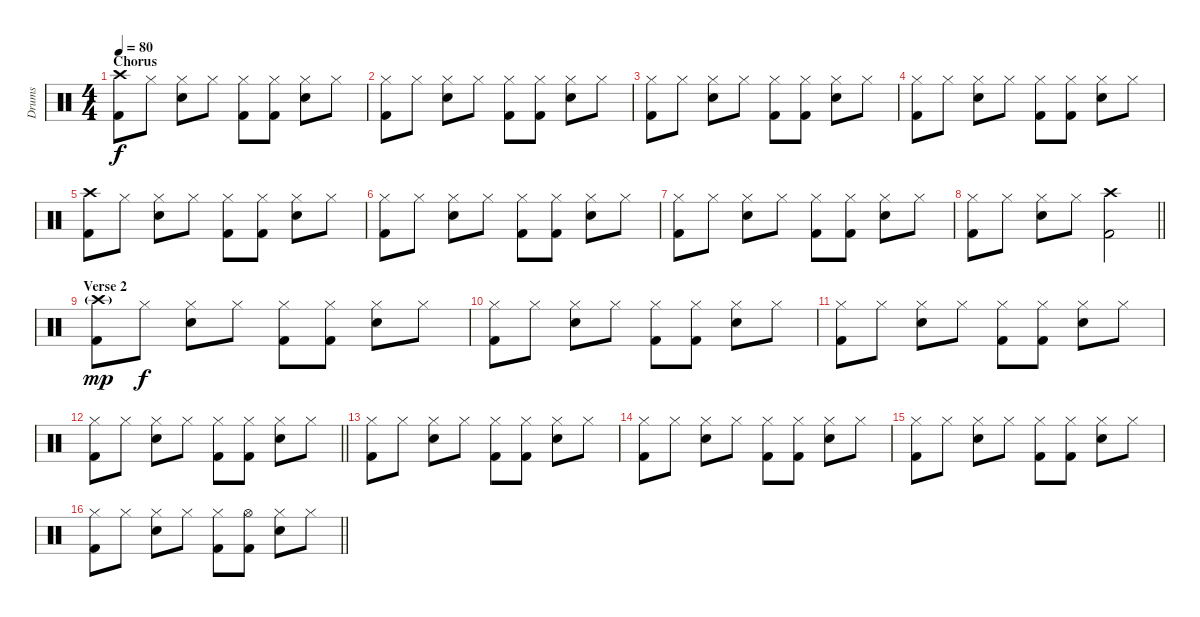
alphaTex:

\track ("Drums" "Drums") {instrument percussion}
\staff {score}
\articulation defaults
\ts (4 4)
\section ("" "Chorus")
\tempo 80
\clef neutral
\ks c
("Crash high (hit)" "Kick (hit) 2").8{dy f} "Hi-Hat (closed)".8 ("Hi-Hat (closed)" "Snare (hit) 2").8 "Hi-Hat (closed)".8 ("Hi-Hat (closed)" "Kick (hit) 2").8 ("Hi-Hat (closed)" "Kick (hit) 2").8 ("Hi-Hat (closed)" "Snare (hit) 2").8 "Hi-Hat (closed)".8 |
("Hi-Hat (closed)" "Kick (hit) 2").8 "Hi-Hat (closed)".8 ("Hi-Hat (closed)" "Snare (hit) 2").8 "Hi-Hat (closed)".8 ("Hi-Hat (closed)" "Kick (hit) 2").8 ("Hi-Hat (closed)" "Kick (hit) 2").8 ("Hi-Hat (closed)" "Snare (hit) 2").8 "Hi-Hat (closed)".8 |
("Hi-Hat (closed)" "Kick (hit) 2").8 "Hi-Hat (closed)".8 ("Hi-Hat (closed)" "Snare (hit) 2").8 "Hi-Hat (closed)".8 ("Hi-Hat (closed)" "Kick (hit) 2").8 ("Hi-Hat (closed)" "Kick (hit) 2").8 ("Hi-Hat (closed)" "Snare (hit) 2").8 "Hi-Hat (closed)".8 |
("Hi-Hat (closed)" "Kick (hit) 2").8 "Hi-Hat (closed)".8 ("Hi-Hat (closed)" "Snare (hit) 2").8 "Hi-Hat (closed)".8 ("Hi-Hat (closed)" "Kick (hit) 2").8 ("Hi-Hat (closed)" "Kick (hit) 2").8 ("Hi-Hat (closed)" "Snare (hit) 2").8 "Hi-Hat (closed)".8 |
("Crash high (hit)" "Kick (hit) 2").8 "Hi-Hat (closed)".8 ("Hi-Hat (closed)" "Snare (hit) 2").8 "Hi-Hat (closed)".8 ("Hi-Hat (closed)" "Kick (hit) 2").8 ("Hi-Hat (closed)" "Kick (hit) 2").8 ("Hi-Hat (closed)" "Snare (hit) 2").8 "Hi-Hat (closed)".8 |
("Hi-Hat (closed)" "Kick (hit) 2").8 "Hi-Hat (closed)".8 ("Hi-Hat (closed)" "Snare (hit) 2").8 "Hi-Hat (closed)".8 ("Hi-Hat (closed)" "Kick (hit) 2").8 ("Hi-Hat (closed)" "Kick (hit) 2").8 ("Hi-Hat (closed)" "Snare (hit) 2").8 "Hi-Hat (closed)".8 |
("Hi-Hat (closed)" "Kick (hit) 2").8 "Hi-Hat (closed)".8 ("Hi-Hat (closed)" "Snare (hit) 2").8 "Hi-Hat (closed)".8 ("Hi-Hat (closed)" "Kick (hit) 2").8 ("Hi-Hat (closed)" "Kick (hit) 2").8 ("Hi-Hat (closed)" "Snare (hit) 2").8 "Hi-Hat (closed)".8 |
\barLineRight lightlight
("Hi-Hat (closed)" "Kick (hit) 2").8 "Hi-Hat (closed)".8 ("Hi-Hat (closed)" "Snare (hit) 2").8 "Hi-Hat (closed)".8 ("Crash high (hit)" "Kick (hit) 2").2 |
\section ("" "Verse 2")
("Crash high (hit)"{g} "Kick (hit) 2").8{dy mp} "Hi-Hat (closed)".8{dy f} ("Hi-Hat (closed)" "Snare (hit) 2").8 "Hi-Hat (closed)".8 ("Hi-Hat (closed)" "Kick (hit) 2").8 ("Hi-Hat (closed)" "Kick (hit) 2").8 ("Hi-Hat (closed)" "Snare (hit) 2").8 "Hi-Hat (closed)".8 |
("Hi-Hat (closed)" "Kick (hit) 2").8 "Hi-Hat (closed)".8 ("Hi-Hat (closed)" "Snare (hit) 2").8 "Hi-Hat (closed)".8 ("Hi-Hat (closed)" "Kick (hit) 2").8 ("Hi-Hat (closed)" "Kick (hit) 2").8 ("Hi-Hat (closed)" "Snare (hit) 2").8 "Hi-Hat (closed)".8 |
("Hi-Hat (closed)" "Kick (hit) 2").8 "Hi-Hat (closed)".8 ("Hi-Hat (closed)" "Snare (hit) 2").8 "Hi-Hat (closed)".8 ("Hi-Hat (closed)" "Kick (hit) 2").8 ("Hi-Hat (closed)" "Kick (hit) 2").8 ("Hi-Hat (closed)" "Snare (hit) 2").8 "Hi-Hat (closed)".8 |
\barLineRight lightlight
("Hi-Hat (closed)" "Kick (hit) 2").8 "Hi-Hat (closed)".8 ("Hi-Hat (closed)" "Snare (hit) 2").8 "Hi-Hat (closed)".8 ("Hi-Hat (closed)" "Kick (hit) 2").8 ("Hi-Hat (closed)" "Kick (hit) 2").8 ("Hi-Hat (closed)" "Snare (hit) 2").8 "Hi-Hat (closed)".8 |
("Hi-Hat (closed)" "Kick (hit) 2").8 "Hi-Hat (closed)".8 ("Hi-Hat (closed)" "Snare (hit) 2").8 "Hi-Hat (closed)".8 ("Hi-Hat (closed)" "Kick (hit) 2").8 ("Hi-Hat (closed)" "Kick (hit) 2").8 ("Hi-Hat (closed)" "Snare (hit) 2").8 "Hi-Hat (closed)".8 |
("Hi-Hat (closed)" "Kick (hit) 2").8 "Hi-Hat (closed)".8 ("Hi-Hat (closed)" "Snare (hit) 2").8 "Hi-Hat (closed)".8 ("Hi-Hat (closed)" "Kick (hit) 2").8 ("Hi-Hat (closed)" "Kick (hit) 2").8 ("Hi-Hat (closed)" "Snare (hit) 2").8 "Hi-Hat (closed)".8 |
("Hi-Hat (closed)" "Kick (hit) 2").8 "Hi-Hat (closed)".8 ("Hi-Hat (closed)" "Snare (hit) 2").8 "Hi-Hat (closed)".8 ("Hi-Hat (closed)" "Kick (hit) 2").8 ("Hi-Hat (closed)" "Kick (hit) 2").8 ("Hi-Hat (closed)" "Snare (hit) 2").8 "Hi-Hat (closed)".8 |
\barLineRight lightlight
("Hi-Hat (closed)" "Kick (hit) 2").8 "Hi-Hat (closed)".8 ("Hi-Hat (closed)" "Snare (hit) 2").8 "Hi-Hat (closed)".8 ("Hi-Hat (closed)" "Kick (hit) 2").8 ("Hi-Hat (open)" "Kick (hit) 2").8 ("Hi-Hat (closed)" "Snare (hit) 2").8 "Hi-Hat (closed)".8
